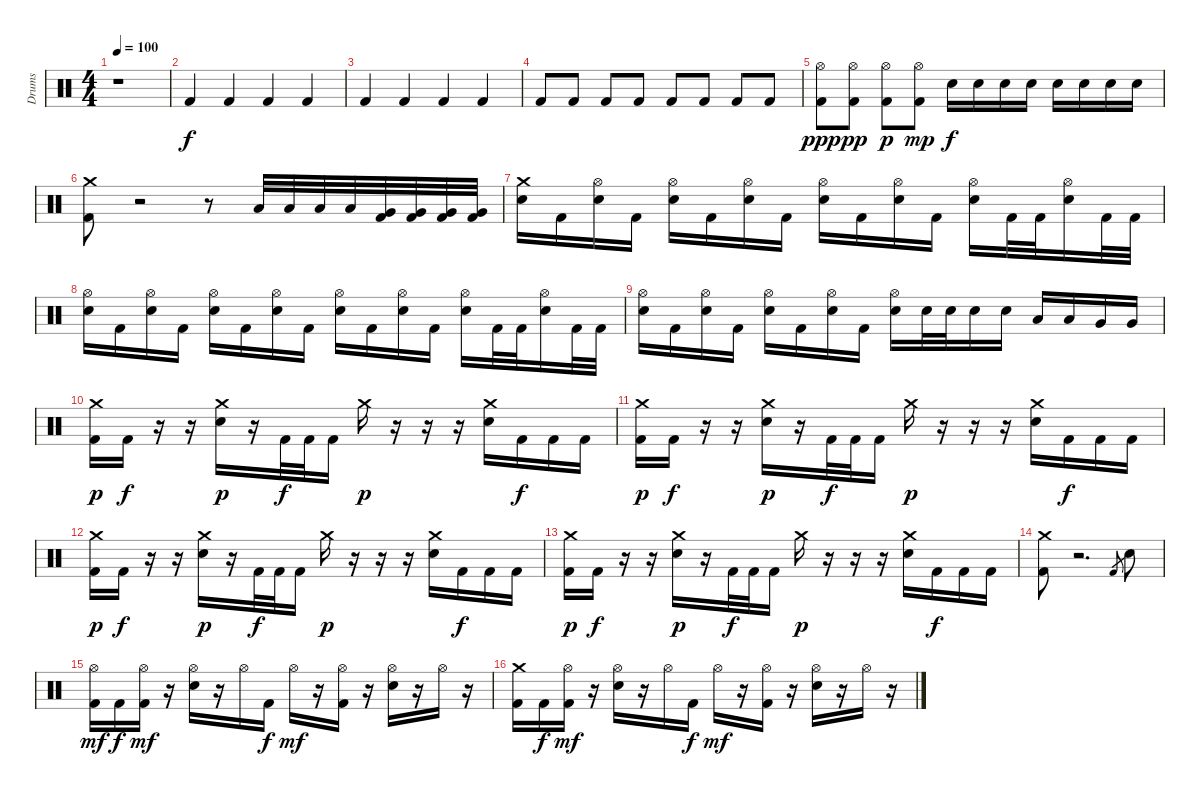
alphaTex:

\track ("Drums" "Drums") {instrument percussion}
\staff {score}
\articulation defaults
\ts (4 4)
\tempo 100
\clef neutral
\ks c
r.1{dy f} |
"Kick (hit) 2".4 "Kick (hit) 2".4 "Kick (hit) 2".4 "Kick (hit) 2".4 |
"Kick (hit) 2".4 "Kick (hit) 2".4 "Kick (hit) 2".4 "Kick (hit) 2".4 |
"Kick (hit) 2".8 "Kick (hit) 2".8 "Kick (hit) 2".8 "Kick (hit) 2".8 "Kick (hit) 2".8 "Kick (hit) 2".8 "Kick (hit) 2".8 "Kick (hit) 2".8 |
("Hi-Hat (open)" "Kick (hit) 2").8{dy ppp} ("Hi-Hat (open)" "Kick (hit) 2").8{dy pp} ("Hi-Hat (open)" "Kick (hit) 2").8{dy p} ("Hi-Hat (open)" "Kick (hit) 2").8{dy mp} "Snare (hit) 2".16{dy f} "Snare (hit) 2".16 "Snare (hit) 2".16 "Snare (hit) 2".16 "Snare (hit) 2".16 "Snare (hit) 2".16 "Snare (hit) 2".16 "Snare (hit) 2".16 |
("Crash medium (hit)" "Kick (hit) 2").8 r.2 r.8 "Low Tom (hit)".32 "Low Tom (hit)".32 "Low Tom (hit)".32 "Low Tom (hit)".32 ("Very Low Tom (hit)" "Kick (hit) 2").32 ("Very Low Tom (hit)" "Kick (hit) 2").32 ("Very Low Tom (hit)" "Kick (hit) 2").32 ("Very Low Tom (hit)" "Kick (hit) 2").32 |
("Crash medium (hit)" "Snare (hit) 2").16 "Kick (hit) 2".16 ("Hi-Hat (open)" "Snare (hit) 2").16 "Kick (hit) 2".16 ("Hi-Hat (open)" "Snare (hit) 2").16 "Kick (hit) 2".16 ("Hi-Hat (open)" "Snare (hit) 2").16 "Kick (hit) 2".16 ("Hi-Hat (open)" "Snare (hit) 2").16 "Kick (hit) 2".16 ("Hi-Hat (open)" "Snare (hit) 2").16 "Kick (hit) 2".16 ("Hi-Hat (open)" "Snare (hit) 2").16 "Kick (hit) 2".32 "Kick (hit) 2".32 ("Hi-Hat (open)" "Snare (hit) 2").16 "Kick (hit) 2".32 "Kick (hit) 2".32 |
("Hi-Hat (open)" "Snare (hit) 2").16 "Kick (hit) 2".16 ("Hi-Hat (open)" "Snare (hit) 2").16 "Kick (hit) 2".16 ("Hi-Hat (open)" "Snare (hit) 2").16 "Kick (hit) 2".16 ("Hi-Hat (open)" "Snare (hit) 2").16 "Kick (hit) 2".16 ("Hi-Hat (open)" "Snare (hit) 2").16 "Kick (hit) 2".16 ("Hi-Hat (open)" "Snare (hit) 2").16 "Kick (hit) 2".16 ("Hi-Hat (open)" "Snare (hit) 2").16 "Kick (hit) 2".32 "Kick (hit) 2".32 ("Hi-Hat (open)" "Snare (hit) 2").16 "Kick (hit) 2".32 "Kick (hit) 2".32 |
("Hi-Hat (open)" "Snare (hit) 2").16 "Kick (hit) 2".16 ("Hi-Hat (open)" "Snare (hit) 2").16 "Kick (hit) 2".16 ("Hi-Hat (open)" "Snare (hit) 2").16 "Kick (hit) 2".16 ("Hi-Hat (open)" "Snare (hit) 2").16 "Kick (hit) 2".16 ("Hi-Hat (open)" "Snare (hit) 2").16 "Snare (hit) 2".32 "Snare (hit) 2".32 "Snare (hit) 2".16 "Snare (hit) 2".16 "Low Tom (hit)".16 "Low Tom (hit)".16 "Very Low Tom (hit)".16 "Very Low Tom (hit)".16 |
("Crash medium (hit)" "Kick (hit) 2").16{dy p} "Kick (hit) 2".16{dy f} r.16 r.16 ("Crash medium (hit)" "Snare (hit) 2").16{dy p} r.16 "Kick (hit) 2".32{dy f} "Kick (hit) 2".32 "Kick (hit) 2".16 "Crash medium (hit)".16{dy p} r.16 r.16 r.16 ("Crash medium (hit)" "Snare (hit) 2").16 "Kick (hit) 2".16{dy f} "Kick (hit) 2".16 "Kick (hit) 2".16 |
("Crash medium (hit)" "Kick (hit) 2").16{dy p} "Kick (hit) 2".16{dy f} r.16 r.16 ("Crash medium (hit)" "Snare (hit) 2").16{dy p} r.16 "Kick (hit) 2".32{dy f} "Kick (hit) 2".32 "Kick (hit) 2".16 "Crash medium (hit)".16{dy p} r.16 r.16 r.16 ("Crash medium (hit)" "Snare (hit) 2").16 "Kick (hit) 2".16{dy f} "Kick (hit) 2".16 "Kick (hit) 2".16 |
("Crash medium (hit)" "Kick (hit) 2").16{dy p} "Kick (hit) 2".16{dy f} r.16 r.16 ("Crash medium (hit)" "Snare (hit) 2").16{dy p} r.16 "Kick (hit) 2".32{dy f} "Kick (hit) 2".32 "Kick (hit) 2".16 "Crash medium (hit)".16{dy p} r.16 r.16 r.16 ("Crash medium (hit)" "Snare (hit) 2").16 "Kick (hit) 2".16{dy f} "Kick (hit) 2".16 "Kick (hit) 2".16 |
("Crash medium (hit)" "Kick (hit) 2").16{dy p} "Kick (hit) 2".16{dy f} r.16 r.16 ("Crash medium (hit)" "Snare (hit) 2").16{dy p} r.16 "Kick (hit) 2".32{dy f} "Kick (hit) 2".32 "Kick (hit) 2".16 "Crash medium (hit)".16{dy p} r.16 r.16 r.16 ("Crash medium (hit)" "Snare (hit) 2").16 "Kick (hit) 2".16{dy f} "Kick (hit) 2".16 "Kick (hit) 2".16 |
("Crash medium (hit)" "Kick (hit) 2").8 r.2{d} "Kick (hit) 2".8{gr} "Snare (hit) 2".8 |
("Hi-Hat (open)" "Kick (hit) 2").16{dy mf} "Kick (hit) 2".16{dy f} ("Hi-Hat (open)" "Kick (hit) 2").16{dy mf} r.16 ("Hi-Hat (open)" "Snare (hit) 2").16 r.16 "Hi-Hat (open)".16 "Kick (hit) 2".16{dy f} "Hi-Hat (open)".16{dy mf} r.16 ("Hi-Hat (open)" "Kick (hit) 2").16 r.16 ("Hi-Hat (open)" "Snare (hit) 2").16 r.16 "Hi-Hat (open)".16 r.16 |
("Crash medium (hit)" "Kick (hit) 2").16 "Kick (hit) 2".16{dy f} ("Hi-Hat (open)" "Kick (hit) 2").16{dy mf} r.16 ("Hi-Hat (open)" "Snare (hit) 2").16 r.16 "Hi-Hat (open)".16 "Kick (hit) 2".16{dy f} "Hi-Hat (open)".16{dy mf} r.16 ("Hi-Hat (open)" "Kick (hit) 2").16 r.16 ("Hi-Hat (open)" "Snare (hit) 2").16 r.16 "Hi-Hat (open)".16 r.16
